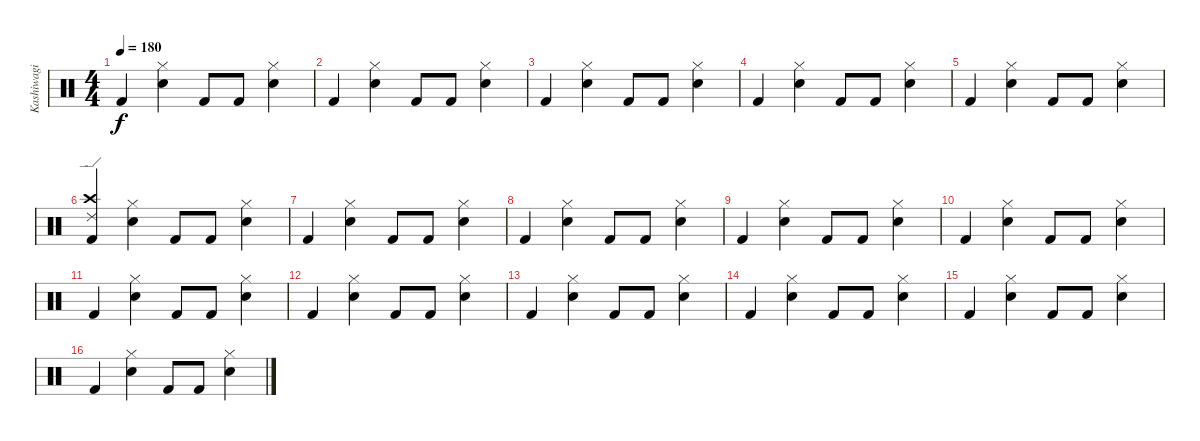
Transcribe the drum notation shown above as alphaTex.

\track ("Kashiwagi Yuki" "Kashiwagi ") {instrument percussion}
\staff {score}
\articulation defaults
\ts (4 4)
\tempo 180
\clef neutral
\ks c "Kick (hit) 2".4{dy f}
("Hi-Hat (closed)" "Electric Snare (hit)").4 "Kick (hit) 2".8 "Kick (hit) 2".8 ("Hi-Hat (closed)" "Electric Snare (hit)").4 |
"Kick (hit) 2".4 ("Hi-Hat (closed)" "Electric Snare (hit)").4 "Kick (hit) 2".8 "Kick (hit) 2".8 ("Hi-Hat (closed)" "Electric Snare (hit)").4 |
"Kick (hit) 2".4 ("Hi-Hat (closed)" "Electric Snare (hit)").4 "Kick (hit) 2".8 "Kick (hit) 2".8 ("Hi-Hat (closed)" "Electric Snare (hit)").4 |
"Kick (hit) 2".4 ("Hi-Hat (closed)" "Electric Snare (hit)").4 "Kick (hit) 2".8 "Kick (hit) 2".8 ("Hi-Hat (closed)" "Electric Snare (hit)").4 |
"Kick (hit) 2".4 ("Hi-Hat (closed)" "Electric Snare (hit)").4 "Kick (hit) 2".8 "Kick (hit) 2".8 ("Hi-Hat (closed)" "Electric Snare (hit)").4 |
("Crash high (hit)" "Ride (edge) 2" "Kick (hit) 2").4 ("Hi-Hat (closed)" "Electric Snare (hit)").4 "Kick (hit) 2".8 "Kick (hit) 2".8 ("Hi-Hat (closed)" "Electric Snare (hit)").4 |
"Kick (hit) 2".4 ("Hi-Hat (closed)" "Electric Snare (hit)").4 "Kick (hit) 2".8 "Kick (hit) 2".8 ("Hi-Hat (closed)" "Electric Snare (hit)").4 |
"Kick (hit) 2".4 ("Hi-Hat (closed)" "Electric Snare (hit)").4 "Kick (hit) 2".8 "Kick (hit) 2".8 ("Hi-Hat (closed)" "Electric Snare (hit)").4 |
"Kick (hit) 2".4 ("Hi-Hat (closed)" "Electric Snare (hit)").4 "Kick (hit) 2".8 "Kick (hit) 2".8 ("Hi-Hat (closed)" "Electric Snare (hit)").4 |
"Kick (hit) 2".4 ("Hi-Hat (closed)" "Electric Snare (hit)").4 "Kick (hit) 2".8 "Kick (hit) 2".8 ("Hi-Hat (closed)" "Electric Snare (hit)").4 |
"Kick (hit) 2".4 ("Hi-Hat (closed)" "Electric Snare (hit)").4 "Kick (hit) 2".8 "Kick (hit) 2".8 ("Hi-Hat (closed)" "Electric Snare (hit)").4 |
"Kick (hit) 2".4 ("Hi-Hat (closed)" "Electric Snare (hit)").4 "Kick (hit) 2".8 "Kick (hit) 2".8 ("Hi-Hat (closed)" "Electric Snare (hit)").4 |
"Kick (hit) 2".4 ("Hi-Hat (closed)" "Electric Snare (hit)").4 "Kick (hit) 2".8 "Kick (hit) 2".8 ("Hi-Hat (closed)" "Electric Snare (hit)").4 |
"Kick (hit) 2".4 ("Hi-Hat (closed)" "Electric Snare (hit)").4 "Kick (hit) 2".8 "Kick (hit) 2".8 ("Hi-Hat (closed)" "Electric Snare (hit)").4 |
"Kick (hit) 2".4 ("Hi-Hat (closed)" "Electric Snare (hit)").4 "Kick (hit) 2".8 "Kick (hit) 2".8 ("Hi-Hat (closed)" "Electric Snare (hit)").4 |
"Kick (hit) 2".4 ("Hi-Hat (closed)" "Electric Snare (hit)").4 "Kick (hit) 2".8 "Kick (hit) 2".8 ("Hi-Hat (closed)" "Electric Snare (hit)").4
